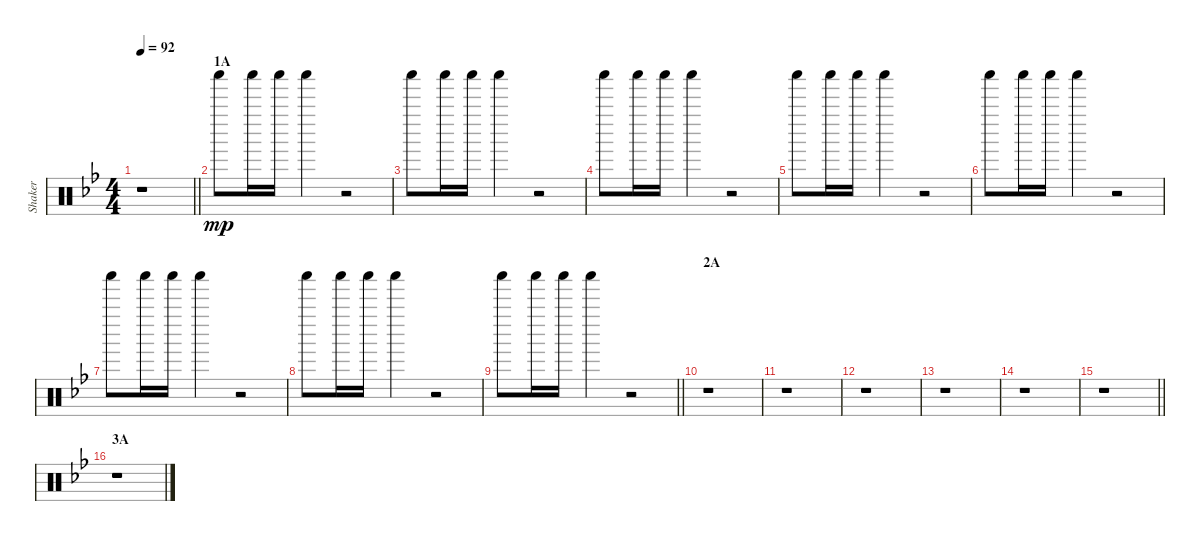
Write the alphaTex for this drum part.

\track ("Shaker" "Shaker") {instrument percussion}
\staff {score}
\articulation defaults
\ts (4 4)
\tempo 92
\clef neutral
\barLineRight lightlight
\ks bb
r.1{dy mp} |
\section ("" "1A")
"Shaker (hit)".8 "Shaker (hit)".16 "Shaker (hit)".16 "Shaker (hit)".4 r.2 |
"Shaker (hit)".8 "Shaker (hit)".16 "Shaker (hit)".16 "Shaker (hit)".4 r.2 |
"Shaker (hit)".8 "Shaker (hit)".16 "Shaker (hit)".16 "Shaker (hit)".4 r.2 |
"Shaker (hit)".8 "Shaker (hit)".16 "Shaker (hit)".16 "Shaker (hit)".4 r.2 |
"Shaker (hit)".8 "Shaker (hit)".16 "Shaker (hit)".16 "Shaker (hit)".4 r.2 |
"Shaker (hit)".8 "Shaker (hit)".16 "Shaker (hit)".16 "Shaker (hit)".4 r.2 |
"Shaker (hit)".8 "Shaker (hit)".16 "Shaker (hit)".16 "Shaker (hit)".4 r.2 |
\barLineRight lightlight "Shaker (hit)".8 "Shaker (hit)".16 "Shaker (hit)".16 "Shaker (hit)".4
r.2 |
\section ("" "2A")
r.1 |
r.1 |
r.1 |
r.1 |
r.1 |
\barLineRight lightlight
r.1 |
\section ("" "3A")
r.1
